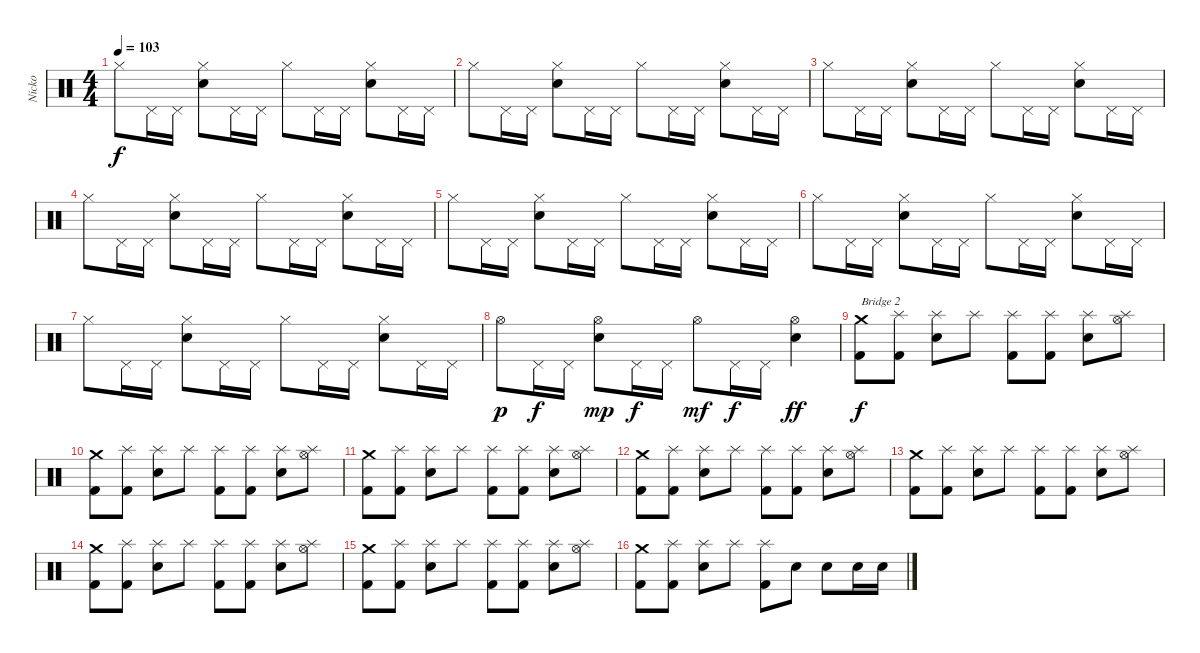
\track ("Nicko" "Nicko") {instrument percussion}
\staff {score}
\articulation defaults
\ts (4 4)
\tempo 103
\clef neutral
\ks c "Hi-Hat (closed)".8{dy f} "Pedal Hi-Hat (hit)".16 "Pedal Hi-Hat (hit)".16
("Hi-Hat (closed)" "Snare (hit) 2").8 "Pedal Hi-Hat (hit)".16 "Pedal Hi-Hat (hit)".16 "Hi-Hat (closed)".8 "Pedal Hi-Hat (hit)".16 "Pedal Hi-Hat (hit)".16 ("Hi-Hat (closed)" "Snare (hit) 2").8 "Pedal Hi-Hat (hit)".16 "Pedal Hi-Hat (hit)".16 |
"Hi-Hat (closed)".8 "Pedal Hi-Hat (hit)".16 "Pedal Hi-Hat (hit)".16 ("Hi-Hat (closed)" "Snare (hit) 2").8 "Pedal Hi-Hat (hit)".16 "Pedal Hi-Hat (hit)".16 "Hi-Hat (closed)".8 "Pedal Hi-Hat (hit)".16 "Pedal Hi-Hat (hit)".16 ("Hi-Hat (closed)" "Snare (hit) 2").8 "Pedal Hi-Hat (hit)".16 "Pedal Hi-Hat (hit)".16 |
"Hi-Hat (closed)".8 "Pedal Hi-Hat (hit)".16 "Pedal Hi-Hat (hit)".16 ("Hi-Hat (closed)" "Snare (hit) 2").8 "Pedal Hi-Hat (hit)".16 "Pedal Hi-Hat (hit)".16 "Hi-Hat (closed)".8 "Pedal Hi-Hat (hit)".16 "Pedal Hi-Hat (hit)".16 ("Hi-Hat (closed)" "Snare (hit) 2").8 "Pedal Hi-Hat (hit)".16 "Pedal Hi-Hat (hit)".16 |
"Hi-Hat (closed)".8 "Pedal Hi-Hat (hit)".16 "Pedal Hi-Hat (hit)".16 ("Hi-Hat (closed)" "Snare (hit) 2").8 "Pedal Hi-Hat (hit)".16 "Pedal Hi-Hat (hit)".16 "Hi-Hat (closed)".8 "Pedal Hi-Hat (hit)".16 "Pedal Hi-Hat (hit)".16 ("Hi-Hat (closed)" "Snare (hit) 2").8 "Pedal Hi-Hat (hit)".16 "Pedal Hi-Hat (hit)".16 |
"Hi-Hat (closed)".8 "Pedal Hi-Hat (hit)".16 "Pedal Hi-Hat (hit)".16 ("Hi-Hat (closed)" "Snare (hit) 2").8 "Pedal Hi-Hat (hit)".16 "Pedal Hi-Hat (hit)".16 "Hi-Hat (closed)".8 "Pedal Hi-Hat (hit)".16 "Pedal Hi-Hat (hit)".16 ("Hi-Hat (closed)" "Snare (hit) 2").8 "Pedal Hi-Hat (hit)".16 "Pedal Hi-Hat (hit)".16 |
"Hi-Hat (closed)".8 "Pedal Hi-Hat (hit)".16 "Pedal Hi-Hat (hit)".16 ("Hi-Hat (closed)" "Snare (hit) 2").8 "Pedal Hi-Hat (hit)".16 "Pedal Hi-Hat (hit)".16 "Hi-Hat (closed)".8 "Pedal Hi-Hat (hit)".16 "Pedal Hi-Hat (hit)".16 ("Hi-Hat (closed)" "Snare (hit) 2").8 "Pedal Hi-Hat (hit)".16 "Pedal Hi-Hat (hit)".16 |
"Hi-Hat (closed)".8 "Pedal Hi-Hat (hit)".16 "Pedal Hi-Hat (hit)".16 ("Hi-Hat (closed)" "Snare (hit) 2").8 "Pedal Hi-Hat (hit)".16 "Pedal Hi-Hat (hit)".16 "Hi-Hat (closed)".8 "Pedal Hi-Hat (hit)".16 "Pedal Hi-Hat (hit)".16 ("Hi-Hat (closed)" "Snare (hit) 2").8 "Pedal Hi-Hat (hit)".16 "Pedal Hi-Hat (hit)".16 |
"Hi-Hat (open)".8{dy p} "Pedal Hi-Hat (hit)".16{dy f} "Pedal Hi-Hat (hit)".16 ("Hi-Hat (open)" "Snare (hit) 2").8{dy mp} "Pedal Hi-Hat (hit)".16{dy f} "Pedal Hi-Hat (hit)".16 "Hi-Hat (open)".8{dy mf} "Pedal Hi-Hat (hit)".16{dy f} "Pedal Hi-Hat (hit)".16 ("Hi-Hat (open)" "Snare (hit) 2").4{dy ff} |
("Crash medium (hit)" "Kick (hit) 2").8{txt "Bridge 2" dy f} ("Splash (hit)" "Kick (hit) 2").8 ("Splash (hit)" "Snare (hit) 2").8 "Splash (hit)".8 ("Splash (hit)" "Kick (hit) 2").8 ("Splash (hit)" "Kick (hit) 2").8 ("Splash (hit)" "Snare (hit) 2").8 ("Splash (hit)" "Hi-Hat (open)").8 |
("Crash medium (hit)" "Kick (hit) 2").8 ("Splash (hit)" "Kick (hit) 2").8 ("Splash (hit)" "Snare (hit) 2").8 "Splash (hit)".8 ("Splash (hit)" "Kick (hit) 2").8 ("Splash (hit)" "Kick (hit) 2").8 ("Splash (hit)" "Snare (hit) 2").8 ("Splash (hit)" "Hi-Hat (open)").8 |
("Crash medium (hit)" "Kick (hit) 2").8 ("Splash (hit)" "Kick (hit) 2").8 ("Splash (hit)" "Snare (hit) 2").8 "Splash (hit)".8 ("Splash (hit)" "Kick (hit) 2").8 ("Splash (hit)" "Kick (hit) 2").8 ("Splash (hit)" "Snare (hit) 2").8 ("Splash (hit)" "Hi-Hat (open)").8 |
("Crash medium (hit)" "Kick (hit) 2").8 ("Splash (hit)" "Kick (hit) 2").8 ("Splash (hit)" "Snare (hit) 2").8 "Splash (hit)".8 ("Splash (hit)" "Kick (hit) 2").8 ("Splash (hit)" "Kick (hit) 2").8 ("Splash (hit)" "Snare (hit) 2").8 ("Splash (hit)" "Hi-Hat (open)").8 |
("Crash medium (hit)" "Kick (hit) 2").8 ("Splash (hit)" "Kick (hit) 2").8 ("Splash (hit)" "Snare (hit) 2").8 "Splash (hit)".8 ("Splash (hit)" "Kick (hit) 2").8 ("Splash (hit)" "Kick (hit) 2").8 ("Splash (hit)" "Snare (hit) 2").8 ("Splash (hit)" "Hi-Hat (open)").8 |
("Crash medium (hit)" "Kick (hit) 2").8 ("Splash (hit)" "Kick (hit) 2").8 ("Splash (hit)" "Snare (hit) 2").8 "Splash (hit)".8 ("Splash (hit)" "Kick (hit) 2").8 ("Splash (hit)" "Kick (hit) 2").8 ("Splash (hit)" "Snare (hit) 2").8 ("Splash (hit)" "Hi-Hat (open)").8 |
("Crash medium (hit)" "Kick (hit) 2").8 ("Splash (hit)" "Kick (hit) 2").8 ("Splash (hit)" "Snare (hit) 2").8 "Splash (hit)".8 ("Splash (hit)" "Kick (hit) 2").8 ("Splash (hit)" "Kick (hit) 2").8 ("Splash (hit)" "Snare (hit) 2").8 ("Splash (hit)" "Hi-Hat (open)").8 |
("Crash medium (hit)" "Kick (hit) 2").8 ("Splash (hit)" "Kick (hit) 2").8 ("Splash (hit)" "Snare (hit) 2").8 "Splash (hit)".8 ("Splash (hit)" "Kick (hit) 2").8 "Snare (hit) 2".8 "Snare (hit) 2".8 "Snare (hit) 2".16 "Snare (hit) 2".16
